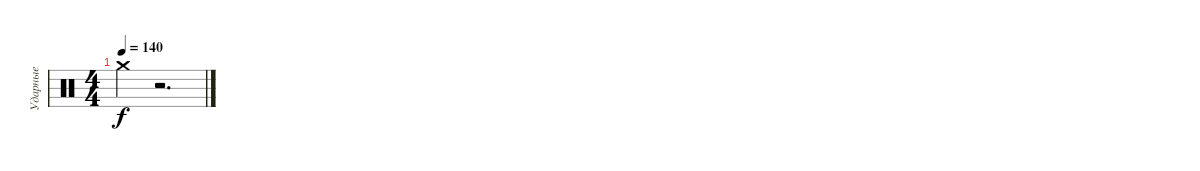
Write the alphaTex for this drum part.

\track ("Ударные" "Ударные") {solo instrument percussion}
\staff {score}
\articulation defaults
\ts (4 4)
\tempo 140
\clef neutral
\ks c "Crash medium (hit)".4{dy f}
r.2{d}
